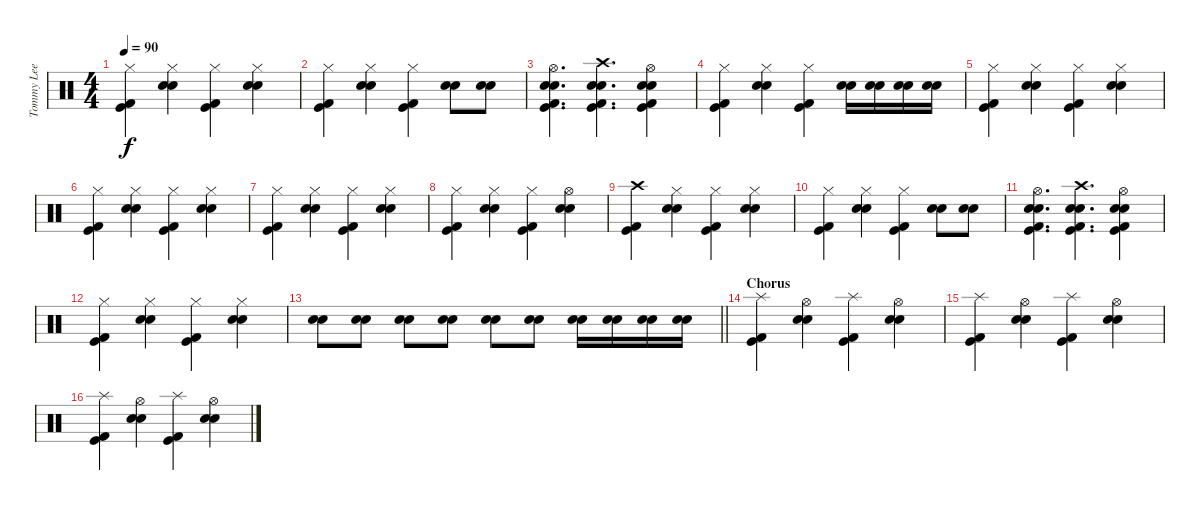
\track ("Tommy Lee" "Tommy Lee") {instrument percussion}
\staff {score}
\articulation defaults
\ts (4 4)
\tempo 90
\clef neutral
\ks c
("Hi-Hat (closed)" "Kick (hit) 2" "Kick (hit)").4{dy f} ("Hi-Hat (closed)" "Electric Snare (hit)" "Snare (hit) 2").4 ("Hi-Hat (closed)" "Kick (hit) 2" "Kick (hit)").4 ("Hi-Hat (closed)" "Electric Snare (hit)" "Snare (hit) 2").4 |
("Hi-Hat (closed)" "Kick (hit) 2" "Kick (hit)").4 ("Hi-Hat (closed)" "Electric Snare (hit)" "Snare (hit) 2").4 ("Hi-Hat (closed)" "Kick (hit) 2" "Kick (hit)").4 ("Electric Snare (hit)" "Snare (hit) 2").8 ("Electric Snare (hit)" "Snare (hit) 2").8 |
("Hi-Hat (open)" "Electric Snare (hit)" "Snare (hit) 2" "Kick (hit) 2" "Kick (hit)").4{d} ("Crash high (hit)" "Electric Snare (hit)" "Snare (hit) 2" "Kick (hit) 2" "Kick (hit)").4{d} ("Hi-Hat (open)" "Electric Snare (hit)" "Snare (hit) 2" "Kick (hit) 2" "Kick (hit)").4 |
("Hi-Hat (closed)" "Kick (hit) 2" "Kick (hit)").4 ("Hi-Hat (closed)" "Electric Snare (hit)" "Snare (hit) 2").4 ("Hi-Hat (closed)" "Kick (hit) 2" "Kick (hit)").4 ("Electric Snare (hit)" "Snare (hit) 2").16 ("Electric Snare (hit)" "Snare (hit) 2").16 ("Electric Snare (hit)" "Snare (hit) 2").16 ("Electric Snare (hit)" "Snare (hit) 2").16 |
("Hi-Hat (closed)" "Kick (hit) 2" "Kick (hit)").4 ("Hi-Hat (closed)" "Electric Snare (hit)" "Snare (hit) 2").4 ("Hi-Hat (closed)" "Kick (hit) 2" "Kick (hit)").4 ("Hi-Hat (closed)" "Electric Snare (hit)" "Snare (hit) 2").4 |
("Hi-Hat (closed)" "Kick (hit) 2" "Kick (hit)").4 ("Hi-Hat (closed)" "Electric Snare (hit)" "Snare (hit) 2").4 ("Hi-Hat (closed)" "Kick (hit) 2" "Kick (hit)").4 ("Hi-Hat (closed)" "Electric Snare (hit)" "Snare (hit) 2").4 |
("Hi-Hat (closed)" "Kick (hit) 2" "Kick (hit)").4 ("Hi-Hat (closed)" "Electric Snare (hit)" "Snare (hit) 2").4 ("Hi-Hat (closed)" "Kick (hit) 2" "Kick (hit)").4 ("Hi-Hat (closed)" "Electric Snare (hit)" "Snare (hit) 2").4 |
("Hi-Hat (closed)" "Kick (hit) 2" "Kick (hit)").4 ("Hi-Hat (closed)" "Electric Snare (hit)" "Snare (hit) 2").4 ("Hi-Hat (closed)" "Kick (hit) 2" "Kick (hit)").4 ("Hi-Hat (open)" "Electric Snare (hit)" "Snare (hit) 2").4 |
("Crash high (hit)" "Kick (hit) 2" "Kick (hit)").4 ("Hi-Hat (closed)" "Electric Snare (hit)" "Snare (hit) 2").4 ("Hi-Hat (closed)" "Kick (hit) 2" "Kick (hit)").4 ("Hi-Hat (closed)" "Electric Snare (hit)" "Snare (hit) 2").4 |
("Hi-Hat (closed)" "Kick (hit) 2" "Kick (hit)").4 ("Hi-Hat (closed)" "Electric Snare (hit)" "Snare (hit) 2").4 ("Hi-Hat (closed)" "Kick (hit) 2" "Kick (hit)").4 ("Electric Snare (hit)" "Snare (hit) 2").8 ("Electric Snare (hit)" "Snare (hit) 2").8 |
("Hi-Hat (open)" "Electric Snare (hit)" "Snare (hit) 2" "Kick (hit) 2" "Kick (hit)").4{d} ("Crash high (hit)" "Electric Snare (hit)" "Snare (hit) 2" "Kick (hit) 2" "Kick (hit)").4{d} ("Hi-Hat (open)" "Electric Snare (hit)" "Snare (hit) 2" "Kick (hit) 2" "Kick (hit)").4 |
("Hi-Hat (closed)" "Kick (hit) 2" "Kick (hit)").4 ("Hi-Hat (closed)" "Electric Snare (hit)" "Snare (hit) 2").4 ("Hi-Hat (closed)" "Kick (hit) 2" "Kick (hit)").4 ("Hi-Hat (closed)" "Electric Snare (hit)" "Snare (hit) 2").4 |
\barLineRight lightlight
("Electric Snare (hit)" "Snare (hit) 2").8 ("Electric Snare (hit)" "Snare (hit) 2").8 ("Electric Snare (hit)" "Snare (hit) 2").8 ("Electric Snare (hit)" "Snare (hit) 2").8 ("Electric Snare (hit)" "Snare (hit) 2").8 ("Electric Snare (hit)" "Snare (hit) 2").8 ("Electric Snare (hit)" "Snare (hit) 2").16 ("Electric Snare (hit)" "Snare (hit) 2").16 ("Electric Snare (hit)" "Snare (hit) 2").16 ("Electric Snare (hit)" "Snare (hit) 2").16 |
\section ("" "Chorus")
("Splash (hit)" "Kick (hit) 2" "Kick (hit)").4 ("Hi-Hat (open)" "Electric Snare (hit)" "Snare (hit) 2").4 ("Splash (hit)" "Kick (hit) 2" "Kick (hit)").4 ("Hi-Hat (open)" "Electric Snare (hit)" "Snare (hit) 2").4 |
("Splash (hit)" "Kick (hit) 2" "Kick (hit)").4 ("Hi-Hat (open)" "Electric Snare (hit)" "Snare (hit) 2").4 ("Splash (hit)" "Kick (hit) 2" "Kick (hit)").4 ("Hi-Hat (open)" "Electric Snare (hit)" "Snare (hit) 2").4 |
("Splash (hit)" "Kick (hit) 2" "Kick (hit)").4 ("Hi-Hat (open)" "Electric Snare (hit)" "Snare (hit) 2").4 ("Splash (hit)" "Kick (hit) 2" "Kick (hit)").4 ("Hi-Hat (open)" "Electric Snare (hit)" "Snare (hit) 2").4
